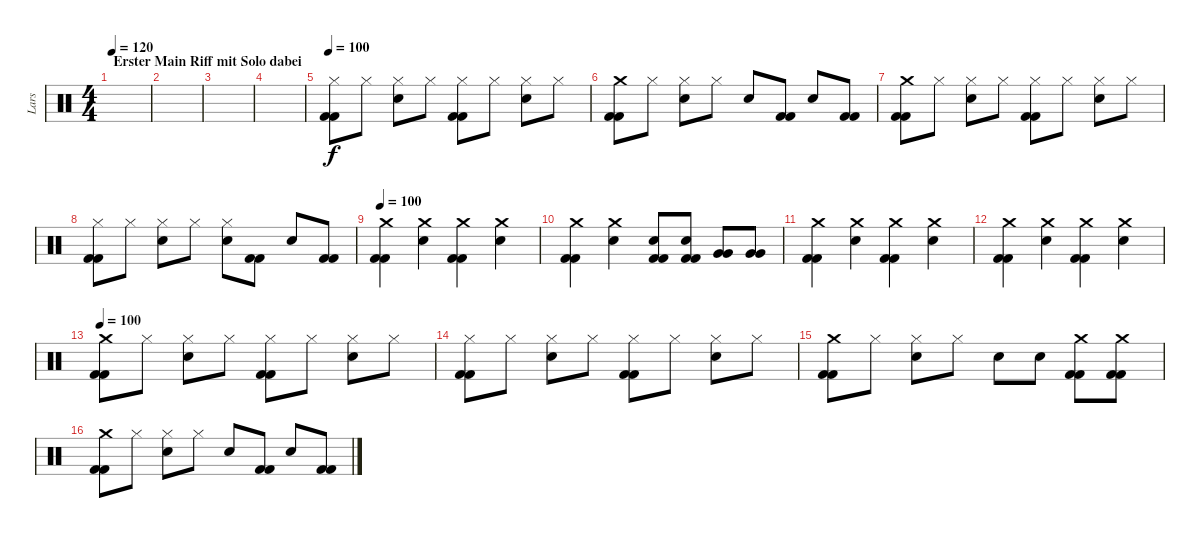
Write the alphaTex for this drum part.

\track ("Lars" "Lars") {instrument percussion}
\staff {score}
\articulation defaults
\ts (4 4)
\section ("" "Erster Main Riff mit Solo dabei")
\tempo 120
\tempo 100
\tempo 120
\clef neutral
\ks c
|
|
|
|
\tempo 100
("Hi-Hat (closed)" "Kick (hit) 2" "Kick (hit) 2").8 "Hi-Hat (closed)".8 ("Electric Snare (hit)" "Hi-Hat (closed)").8 "Hi-Hat (closed)".8 ("Kick (hit) 2" "Kick (hit) 2" "Hi-Hat (closed)").8 "Hi-Hat (closed)".8 ("Hi-Hat (closed)" "Electric Snare (hit)").8 "Hi-Hat (closed)".8 |
("Crash medium (hit)" "Kick (hit) 2" "Kick (hit) 2").8 "Hi-Hat (closed)".8 ("Electric Snare (hit)" "Hi-Hat (closed)").8 "Hi-Hat (closed)".8 "Electric Snare (hit)".8 ("Kick (hit) 2" "Kick (hit) 2").8 "Electric Snare (hit)".8 ("Kick (hit) 2" "Kick (hit) 2").8 |
("Crash medium (hit)" "Kick (hit) 2" "Kick (hit) 2").8 "Hi-Hat (closed)".8 ("Electric Snare (hit)" "Hi-Hat (closed)").8 "Hi-Hat (closed)".8 ("Kick (hit) 2" "Kick (hit) 2" "Hi-Hat (closed)").8 "Hi-Hat (closed)".8 ("Hi-Hat (closed)" "Electric Snare (hit)").8 "Hi-Hat (closed)".8 |
("Hi-Hat (closed)" "Kick (hit) 2" "Kick (hit) 2").8 "Hi-Hat (closed)".8 ("Electric Snare (hit)" "Hi-Hat (closed)").8 "Hi-Hat (closed)".8 ("Hi-Hat (closed)" "Electric Snare (hit)").8 ("Kick (hit) 2" "Kick (hit) 2").8 "Electric Snare (hit)".8 ("Kick (hit) 2" "Kick (hit) 2").8 |
\tempo 100
("Crash medium (hit)" "Kick (hit) 2" "Kick (hit) 2").4 ("Electric Snare (hit)" "Crash medium (hit)").4 ("Crash medium (hit)" "Kick (hit) 2" "Kick (hit) 2").4 ("Electric Snare (hit)" "Crash medium (hit)").4 |
("Crash medium (hit)" "Kick (hit) 2" "Kick (hit) 2").4 ("Electric Snare (hit)" "Crash medium (hit)").4 ("Electric Snare (hit)" "Kick (hit) 2" "Kick (hit) 2").8 ("Electric Snare (hit)" "Kick (hit) 2" "Kick (hit) 2").8 ("Very Low Tom (hit)" "Very Low Tom (hit)").8 ("Very Low Tom (hit)" "Very Low Tom (hit)").8 |
("Crash medium (hit)" "Kick (hit) 2" "Kick (hit) 2").4 ("Electric Snare (hit)" "Crash medium (hit)").4 ("Crash medium (hit)" "Kick (hit) 2" "Kick (hit) 2").4 ("Electric Snare (hit)" "Crash medium (hit)").4 |
("Crash medium (hit)" "Kick (hit) 2" "Kick (hit) 2").4 ("Electric Snare (hit)" "Crash medium (hit)").4 ("Crash medium (hit)" "Kick (hit) 2" "Kick (hit) 2").4 ("Electric Snare (hit)" "Crash medium (hit)").4 |
\tempo 100
("Crash medium (hit)" "Kick (hit) 2" "Kick (hit) 2").8 "Hi-Hat (closed)".8 ("Electric Snare (hit)" "Hi-Hat (closed)").8 "Hi-Hat (closed)".8 ("Kick (hit) 2" "Kick (hit) 2" "Hi-Hat (closed)").8 "Hi-Hat (closed)".8 ("Hi-Hat (closed)" "Electric Snare (hit)").8 "Hi-Hat (closed)".8 |
("Hi-Hat (closed)" "Kick (hit) 2" "Kick (hit) 2").8 "Hi-Hat (closed)".8 ("Electric Snare (hit)" "Hi-Hat (closed)").8 "Hi-Hat (closed)".8 ("Kick (hit) 2" "Kick (hit) 2" "Hi-Hat (closed)").8 "Hi-Hat (closed)".8 ("Hi-Hat (closed)" "Electric Snare (hit)").8 "Hi-Hat (closed)".8 |
("Crash medium (hit)" "Kick (hit) 2" "Kick (hit) 2").8 "Hi-Hat (closed)".8 ("Electric Snare (hit)" "Hi-Hat (closed)").8 "Hi-Hat (closed)".8 "Electric Snare (hit)".8 "Electric Snare (hit)".8 ("Crash medium (hit)" "Kick (hit) 2" "Kick (hit) 2").8 ("Kick (hit) 2" "Kick (hit) 2" "Crash medium (hit)").8 |
("Crash medium (hit)" "Kick (hit) 2" "Kick (hit) 2").8 "Hi-Hat (closed)".8 ("Electric Snare (hit)" "Hi-Hat (closed)").8 "Hi-Hat (closed)".8 "Electric Snare (hit)".8 ("Kick (hit) 2" "Kick (hit) 2").8 "Electric Snare (hit)".8 ("Kick (hit) 2" "Kick (hit) 2").8
